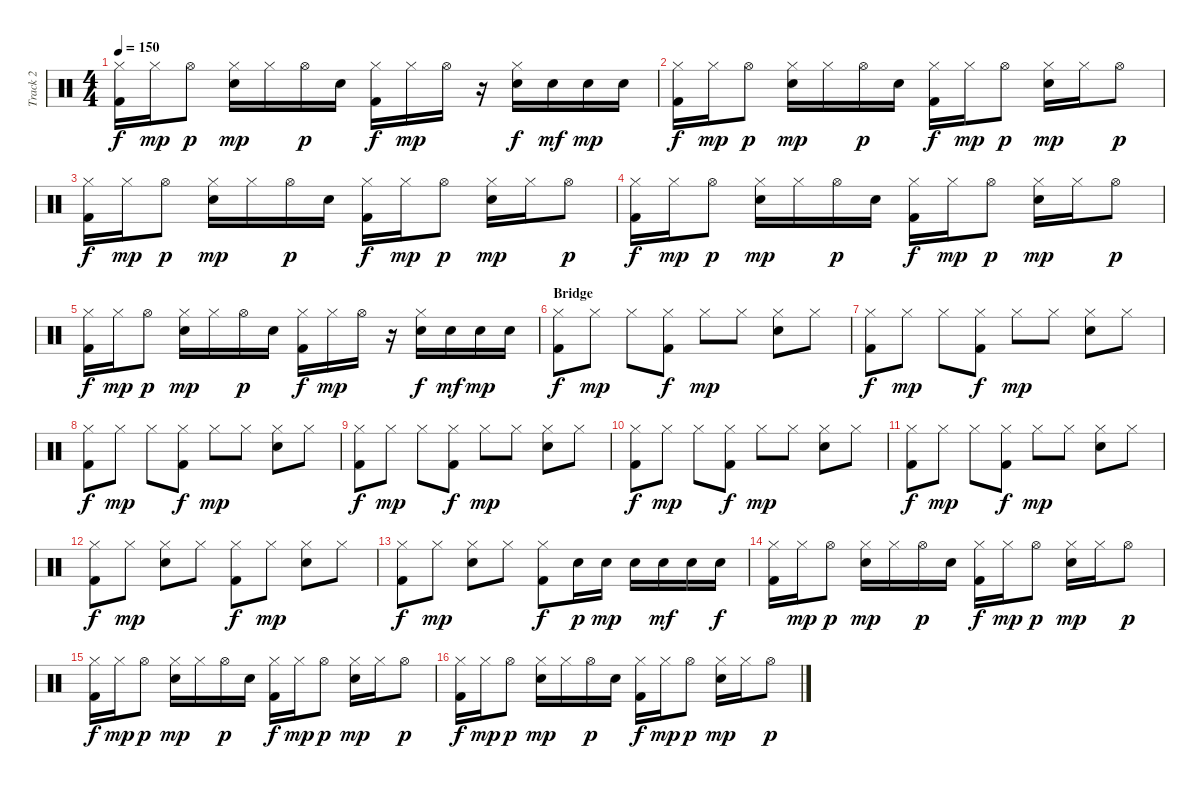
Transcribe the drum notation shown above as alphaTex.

\track ("Track 2" "Track 2") {instrument percussion}
\staff {score}
\articulation defaults
\ts (4 4)
\tempo 150
\clef neutral
\ks c
("Hi-Hat (closed)" "Kick (hit) 2").16{dy f} "Hi-Hat (closed)".16{dy mp} "Hi-Hat (open)".8{dy p} ("Hi-Hat (closed)" "Electric Snare (hit)").16{dy mp} "Hi-Hat (closed)".16 "Hi-Hat (open)".16{dy p} "Electric Snare (hit)".16 ("Hi-Hat (closed)" "Kick (hit) 2").16{dy f} "Hi-Hat (closed)".16{dy mp} "Hi-Hat (open)".16 r.16 ("Hi-Hat (closed)" "Electric Snare (hit)").16{dy f} "Electric Snare (hit)".16{dy mf} "Electric Snare (hit)".16{dy mp} "Electric Snare (hit)".16 |
("Hi-Hat (closed)" "Kick (hit) 2").16{dy f} "Hi-Hat (closed)".16{dy mp} "Hi-Hat (open)".8{dy p} ("Hi-Hat (closed)" "Electric Snare (hit)").16{dy mp} "Hi-Hat (closed)".16 "Hi-Hat (open)".16{dy p} "Electric Snare (hit)".16 ("Hi-Hat (closed)" "Kick (hit) 2").16{dy f} "Hi-Hat (closed)".16{dy mp} "Hi-Hat (open)".8{dy p} ("Hi-Hat (closed)" "Electric Snare (hit)").16{dy mp} "Hi-Hat (closed)".16 "Hi-Hat (open)".8{dy p} |
("Hi-Hat (closed)" "Kick (hit) 2").16{dy f} "Hi-Hat (closed)".16{dy mp} "Hi-Hat (open)".8{dy p} ("Hi-Hat (closed)" "Electric Snare (hit)").16{dy mp} "Hi-Hat (closed)".16 "Hi-Hat (open)".16{dy p} "Electric Snare (hit)".16 ("Hi-Hat (closed)" "Kick (hit) 2").16{dy f} "Hi-Hat (closed)".16{dy mp} "Hi-Hat (open)".8{dy p} ("Hi-Hat (closed)" "Electric Snare (hit)").16{dy mp} "Hi-Hat (closed)".16 "Hi-Hat (open)".8{dy p} |
("Hi-Hat (closed)" "Kick (hit) 2").16{dy f} "Hi-Hat (closed)".16{dy mp} "Hi-Hat (open)".8{dy p} ("Hi-Hat (closed)" "Electric Snare (hit)").16{dy mp} "Hi-Hat (closed)".16 "Hi-Hat (open)".16{dy p} "Electric Snare (hit)".16 ("Hi-Hat (closed)" "Kick (hit) 2").16{dy f} "Hi-Hat (closed)".16{dy mp} "Hi-Hat (open)".8{dy p} ("Hi-Hat (closed)" "Electric Snare (hit)").16{dy mp} "Hi-Hat (closed)".16 "Hi-Hat (open)".8{dy p} |
("Hi-Hat (closed)" "Kick (hit) 2").16{dy f} "Hi-Hat (closed)".16{dy mp} "Hi-Hat (open)".8{dy p} ("Hi-Hat (closed)" "Electric Snare (hit)").16{dy mp} "Hi-Hat (closed)".16 "Hi-Hat (open)".16{dy p} "Electric Snare (hit)".16 ("Hi-Hat (closed)" "Kick (hit) 2").16{dy f} "Hi-Hat (closed)".16{dy mp} "Hi-Hat (open)".16 r.16 ("Hi-Hat (closed)" "Electric Snare (hit)").16{dy f} "Electric Snare (hit)".16{dy mf} "Electric Snare (hit)".16{dy mp} "Electric Snare (hit)".16 |
\section ("" "Bridge")
("Hi-Hat (closed)" "Kick (hit) 2").8{dy f} "Hi-Hat (closed)".8{dy mp} "Hi-Hat (closed)".8 ("Hi-Hat (closed)" "Kick (hit) 2").8{dy f} "Hi-Hat (closed)".8{dy mp} "Hi-Hat (closed)".8 ("Hi-Hat (closed)" "Electric Snare (hit)").8 "Hi-Hat (closed)".8 |
("Hi-Hat (closed)" "Kick (hit) 2").8{dy f} "Hi-Hat (closed)".8{dy mp} "Hi-Hat (closed)".8 ("Hi-Hat (closed)" "Kick (hit) 2").8{dy f} "Hi-Hat (closed)".8{dy mp} "Hi-Hat (closed)".8 ("Hi-Hat (closed)" "Electric Snare (hit)").8 "Hi-Hat (closed)".8 |
("Hi-Hat (closed)" "Kick (hit) 2").8{dy f} "Hi-Hat (closed)".8{dy mp} "Hi-Hat (closed)".8 ("Hi-Hat (closed)" "Kick (hit) 2").8{dy f} "Hi-Hat (closed)".8{dy mp} "Hi-Hat (closed)".8 ("Hi-Hat (closed)" "Electric Snare (hit)").8 "Hi-Hat (closed)".8 |
("Hi-Hat (closed)" "Kick (hit) 2").8{dy f} "Hi-Hat (closed)".8{dy mp} "Hi-Hat (closed)".8 ("Hi-Hat (closed)" "Kick (hit) 2").8{dy f} "Hi-Hat (closed)".8{dy mp} "Hi-Hat (closed)".8 ("Hi-Hat (closed)" "Electric Snare (hit)").8 "Hi-Hat (closed)".8 |
("Hi-Hat (closed)" "Kick (hit) 2").8{dy f} "Hi-Hat (closed)".8{dy mp} "Hi-Hat (closed)".8 ("Hi-Hat (closed)" "Kick (hit) 2").8{dy f} "Hi-Hat (closed)".8{dy mp} "Hi-Hat (closed)".8 ("Hi-Hat (closed)" "Electric Snare (hit)").8 "Hi-Hat (closed)".8 |
("Hi-Hat (closed)" "Kick (hit) 2").8{dy f} "Hi-Hat (closed)".8{dy mp} "Hi-Hat (closed)".8 ("Hi-Hat (closed)" "Kick (hit) 2").8{dy f} "Hi-Hat (closed)".8{dy mp} "Hi-Hat (closed)".8 ("Hi-Hat (closed)" "Electric Snare (hit)").8 "Hi-Hat (closed)".8 |
("Hi-Hat (closed)" "Kick (hit) 2").8{dy f} "Hi-Hat (closed)".8{dy mp} ("Hi-Hat (closed)" "Electric Snare (hit)").8 "Hi-Hat (closed)".8 ("Hi-Hat (closed)" "Kick (hit) 2").8{dy f} "Hi-Hat (closed)".8{dy mp} ("Hi-Hat (closed)" "Electric Snare (hit)").8 "Hi-Hat (closed)".8 |
("Hi-Hat (closed)" "Kick (hit) 2").8{dy f} "Hi-Hat (closed)".8{dy mp} ("Hi-Hat (closed)" "Electric Snare (hit)").8 "Hi-Hat (closed)".8 ("Hi-Hat (closed)" "Kick (hit) 2").8{dy f} "Electric Snare (hit)".16{dy p} "Electric Snare (hit)".16{dy mp} "Electric Snare (hit)".16 "Electric Snare (hit)".16{dy mf} "Electric Snare (hit)".16 "Electric Snare (hit)".16{dy f} |
("Hi-Hat (closed)" "Kick (hit) 2").16 "Hi-Hat (closed)".16{dy mp} "Hi-Hat (open)".8{dy p} ("Hi-Hat (closed)" "Electric Snare (hit)").16{dy mp} "Hi-Hat (closed)".16 "Hi-Hat (open)".16{dy p} "Electric Snare (hit)".16 ("Hi-Hat (closed)" "Kick (hit) 2").16{dy f} "Hi-Hat (closed)".16{dy mp} "Hi-Hat (open)".8{dy p} ("Hi-Hat (closed)" "Electric Snare (hit)").16{dy mp} "Hi-Hat (closed)".16 "Hi-Hat (open)".8{dy p} |
("Hi-Hat (closed)" "Kick (hit) 2").16{dy f} "Hi-Hat (closed)".16{dy mp} "Hi-Hat (open)".8{dy p} ("Hi-Hat (closed)" "Electric Snare (hit)").16{dy mp} "Hi-Hat (closed)".16 "Hi-Hat (open)".16{dy p} "Electric Snare (hit)".16 ("Hi-Hat (closed)" "Kick (hit) 2").16{dy f} "Hi-Hat (closed)".16{dy mp} "Hi-Hat (open)".8{dy p} ("Hi-Hat (closed)" "Electric Snare (hit)").16{dy mp} "Hi-Hat (closed)".16 "Hi-Hat (open)".8{dy p} |
("Hi-Hat (closed)" "Kick (hit) 2").16{dy f} "Hi-Hat (closed)".16{dy mp} "Hi-Hat (open)".8{dy p} ("Hi-Hat (closed)" "Electric Snare (hit)").16{dy mp} "Hi-Hat (closed)".16 "Hi-Hat (open)".16{dy p} "Electric Snare (hit)".16 ("Hi-Hat (closed)" "Kick (hit) 2").16{dy f} "Hi-Hat (closed)".16{dy mp} "Hi-Hat (open)".8{dy p} ("Hi-Hat (closed)" "Electric Snare (hit)").16{dy mp} "Hi-Hat (closed)".16 "Hi-Hat (open)".8{dy p}
